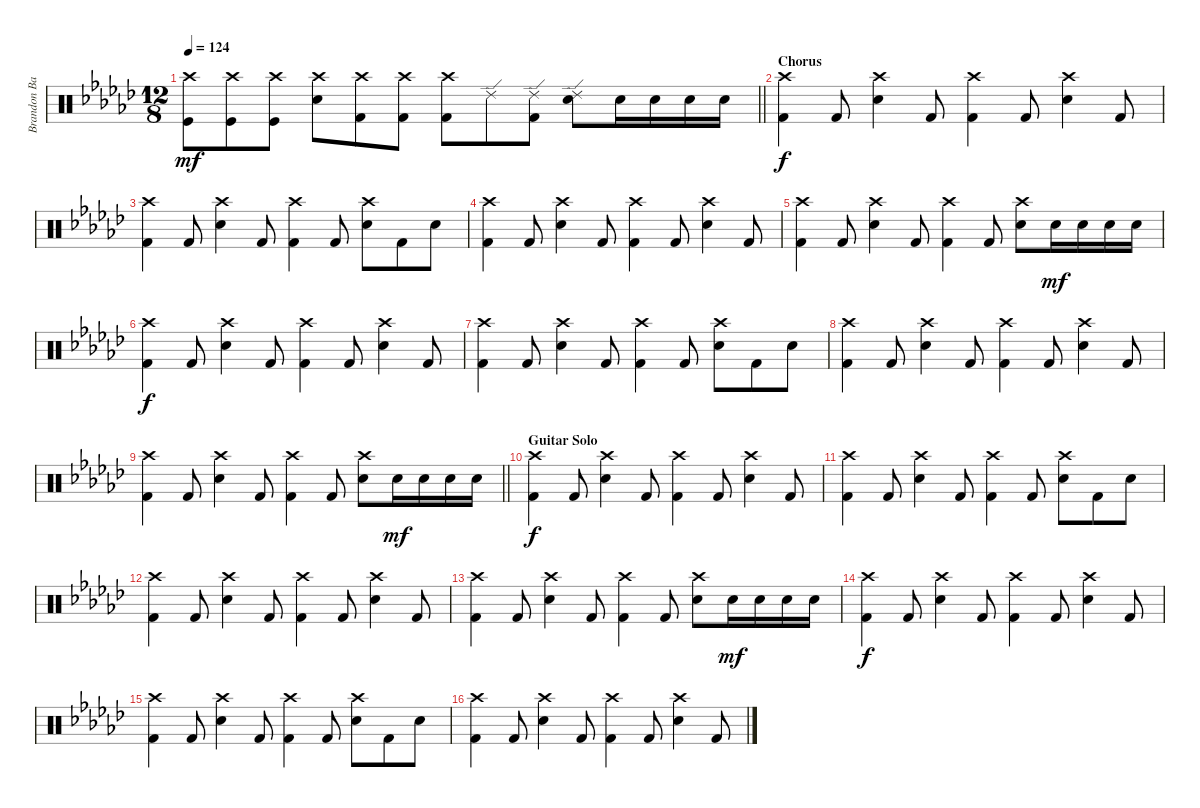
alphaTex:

\track ("Brandon Barnes - Drums" "Brandon Ba") {instrument percussion}
\staff {score}
\articulation defaults
\ts (12 8)
\tempo 124
\clef neutral
\barLineRight lightlight
\ks gb
("Crash high (hit)" "Kick (hit)").8{dy mf} ("Crash high (hit)" "Kick (hit)").8 ("Crash high (hit)" "Kick (hit)").8 ("Crash high (hit)" "Snare (hit) 2").8 ("Crash high (hit)" "Kick (hit) 2").8 ("Crash high (hit)" "Kick (hit) 2").8 ("Crash high (hit)" "Kick (hit) 2").8 "Ride (edge) 2".8 ("Ride (edge) 2" "Kick (hit) 2").8 ("Ride (edge) 2" "Snare (hit) 2").8 "Snare (hit) 2".16 "Snare (hit) 2".16 "Snare (hit) 2".16 "Snare (hit) 2".16 |
\section ("" "Chorus")
("Crash high (hit)" "Kick (hit) 2").4{dy f} "Kick (hit) 2".8 ("Snare (hit) 2" "Crash high (hit)").4 "Kick (hit) 2".8 ("Crash high (hit)" "Kick (hit) 2").4 "Kick (hit) 2".8 ("Snare (hit) 2" "Crash high (hit)").4 "Kick (hit) 2".8 |
("Crash high (hit)" "Kick (hit) 2").4 "Kick (hit) 2".8 ("Snare (hit) 2" "Crash high (hit)").4 "Kick (hit) 2".8 ("Crash high (hit)" "Kick (hit) 2").4 "Kick (hit) 2".8 ("Snare (hit) 2" "Crash high (hit)").8 "Kick (hit) 2".8 "Snare (hit) 2".8 |
("Crash high (hit)" "Kick (hit) 2").4 "Kick (hit) 2".8 ("Snare (hit) 2" "Crash high (hit)").4 "Kick (hit) 2".8 ("Crash high (hit)" "Kick (hit) 2").4 "Kick (hit) 2".8 ("Snare (hit) 2" "Crash high (hit)").4 "Kick (hit) 2".8 |
("Crash high (hit)" "Kick (hit) 2").4 "Kick (hit) 2".8 ("Snare (hit) 2" "Crash high (hit)").4 "Kick (hit) 2".8 ("Crash high (hit)" "Kick (hit) 2").4 "Kick (hit) 2".8 ("Snare (hit) 2" "Crash high (hit)").8 "Snare (hit) 2".16{dy mf} "Snare (hit) 2".16 "Snare (hit) 2".16 "Snare (hit) 2".16 |
("Crash high (hit)" "Kick (hit) 2").4{dy f} "Kick (hit) 2".8 ("Snare (hit) 2" "Crash high (hit)").4 "Kick (hit) 2".8 ("Crash high (hit)" "Kick (hit) 2").4 "Kick (hit) 2".8 ("Snare (hit) 2" "Crash high (hit)").4 "Kick (hit) 2".8 |
("Crash high (hit)" "Kick (hit) 2").4 "Kick (hit) 2".8 ("Snare (hit) 2" "Crash high (hit)").4 "Kick (hit) 2".8 ("Crash high (hit)" "Kick (hit) 2").4 "Kick (hit) 2".8 ("Snare (hit) 2" "Crash high (hit)").8 "Kick (hit) 2".8 "Snare (hit) 2".8 |
("Crash high (hit)" "Kick (hit) 2").4 "Kick (hit) 2".8 ("Snare (hit) 2" "Crash high (hit)").4 "Kick (hit) 2".8 ("Crash high (hit)" "Kick (hit) 2").4 "Kick (hit) 2".8 ("Snare (hit) 2" "Crash high (hit)").4 "Kick (hit) 2".8 |
\barLineRight lightlight
("Crash high (hit)" "Kick (hit) 2").4 "Kick (hit) 2".8 ("Snare (hit) 2" "Crash high (hit)").4 "Kick (hit) 2".8 ("Crash high (hit)" "Kick (hit) 2").4 "Kick (hit) 2".8 ("Snare (hit) 2" "Crash high (hit)").8 "Snare (hit) 2".16{dy mf} "Snare (hit) 2".16 "Snare (hit) 2".16 "Snare (hit) 2".16 |
\section ("" "Guitar Solo")
("Crash high (hit)" "Kick (hit) 2").4{dy f} "Kick (hit) 2".8 ("Snare (hit) 2" "Crash high (hit)").4 "Kick (hit) 2".8 ("Crash high (hit)" "Kick (hit) 2").4 "Kick (hit) 2".8 ("Snare (hit) 2" "Crash high (hit)").4 "Kick (hit) 2".8 |
("Crash high (hit)" "Kick (hit) 2").4 "Kick (hit) 2".8 ("Snare (hit) 2" "Crash high (hit)").4 "Kick (hit) 2".8 ("Crash high (hit)" "Kick (hit) 2").4 "Kick (hit) 2".8 ("Snare (hit) 2" "Crash high (hit)").8 "Kick (hit) 2".8 "Snare (hit) 2".8 |
("Crash high (hit)" "Kick (hit) 2").4 "Kick (hit) 2".8 ("Snare (hit) 2" "Crash high (hit)").4 "Kick (hit) 2".8 ("Crash high (hit)" "Kick (hit) 2").4 "Kick (hit) 2".8 ("Snare (hit) 2" "Crash high (hit)").4 "Kick (hit) 2".8 |
("Crash high (hit)" "Kick (hit) 2").4 "Kick (hit) 2".8 ("Snare (hit) 2" "Crash high (hit)").4 "Kick (hit) 2".8 ("Crash high (hit)" "Kick (hit) 2").4 "Kick (hit) 2".8 ("Snare (hit) 2" "Crash high (hit)").8 "Snare (hit) 2".16{dy mf} "Snare (hit) 2".16 "Snare (hit) 2".16 "Snare (hit) 2".16 |
("Crash high (hit)" "Kick (hit) 2").4{dy f} "Kick (hit) 2".8 ("Snare (hit) 2" "Crash high (hit)").4 "Kick (hit) 2".8 ("Crash high (hit)" "Kick (hit) 2").4 "Kick (hit) 2".8 ("Snare (hit) 2" "Crash high (hit)").4 "Kick (hit) 2".8 |
("Crash high (hit)" "Kick (hit) 2").4 "Kick (hit) 2".8 ("Snare (hit) 2" "Crash high (hit)").4 "Kick (hit) 2".8 ("Crash high (hit)" "Kick (hit) 2").4 "Kick (hit) 2".8 ("Snare (hit) 2" "Crash high (hit)").8 "Kick (hit) 2".8 "Snare (hit) 2".8 |
("Crash high (hit)" "Kick (hit) 2").4 "Kick (hit) 2".8 ("Snare (hit) 2" "Crash high (hit)").4 "Kick (hit) 2".8 ("Crash high (hit)" "Kick (hit) 2").4 "Kick (hit) 2".8 ("Snare (hit) 2" "Crash high (hit)").4 "Kick (hit) 2".8
